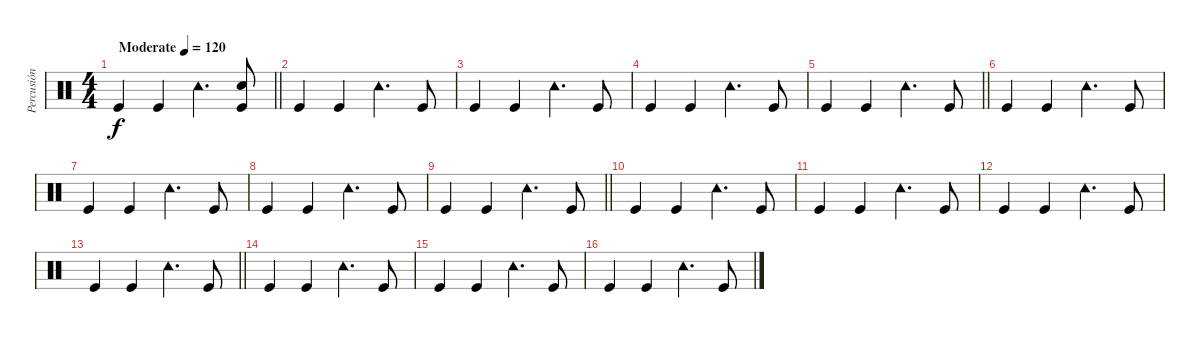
\track ("Percusión" "Percusión") {instrument percussion}
\staff {score}
\articulation defaults
\ts (4 4)
\tempo (120 "Moderate")
\clef neutral
\barLineRight lightlight
\ks c "Kick (hit)".4{dy f} "Kick (hit)".4 "Tambourine (hit)".4{d}
("Kick (hit)" "Snare (hit)").8 |
"Kick (hit)".4 "Kick (hit)".4 "Tambourine (hit)".4{d} "Kick (hit)".8 |
"Kick (hit)".4 "Kick (hit)".4 "Tambourine (hit)".4{d} "Kick (hit)".8 |
"Kick (hit)".4 "Kick (hit)".4 "Tambourine (hit)".4{d} "Kick (hit)".8 |
\barLineRight lightlight "Kick (hit)".4 "Kick (hit)".4 "Tambourine (hit)".4{d} "Kick (hit)".8
|
"Kick (hit)".4 "Kick (hit)".4 "Tambourine (hit)".4{d} "Kick (hit)".8 |
"Kick (hit)".4 "Kick (hit)".4 "Tambourine (hit)".4{d} "Kick (hit)".8 |
"Kick (hit)".4 "Kick (hit)".4 "Tambourine (hit)".4{d} "Kick (hit)".8 |
\barLineRight lightlight "Kick (hit)".4 "Kick (hit)".4 "Tambourine (hit)".4{d} "Kick (hit)".8
|
"Kick (hit)".4 "Kick (hit)".4 "Tambourine (hit)".4{d} "Kick (hit)".8 |
"Kick (hit)".4 "Kick (hit)".4 "Tambourine (hit)".4{d} "Kick (hit)".8 |
"Kick (hit)".4 "Kick (hit)".4 "Tambourine (hit)".4{d} "Kick (hit)".8 |
\barLineRight lightlight "Kick (hit)".4 "Kick (hit)".4 "Tambourine (hit)".4{d} "Kick (hit)".8
|
"Kick (hit)".4 "Kick (hit)".4 "Tambourine (hit)".4{d} "Kick (hit)".8 |
"Kick (hit)".4 "Kick (hit)".4 "Tambourine (hit)".4{d} "Kick (hit)".8 |
"Kick (hit)".4 "Kick (hit)".4 "Tambourine (hit)".4{d} "Kick (hit)".8
